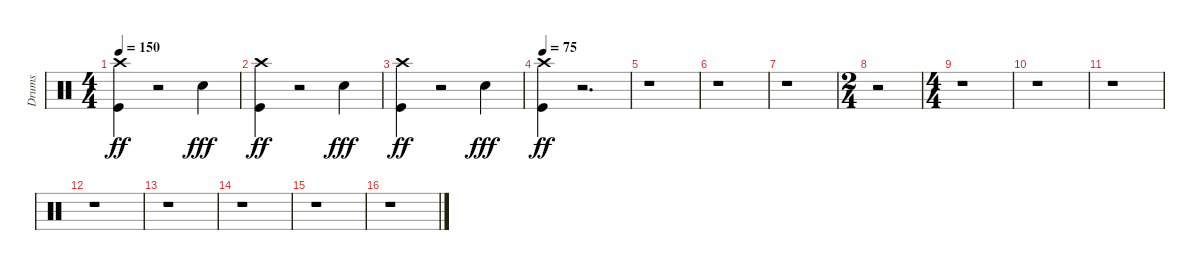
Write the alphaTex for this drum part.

\track ("Drums" "Drums") {instrument percussion}
\staff {score}
\articulation defaults
\ts (4 4)
\tempo 150
\clef neutral
\ks c
("Crash high (hit)" "Kick (hit)").4{dy ff} r.2 "Snare (hit) 2".4{dy fff} |
("Crash high (hit)" "Kick (hit)").4{dy ff} r.2 "Snare (hit) 2".4{dy fff} |
("Crash high (hit)" "Kick (hit)").4{dy ff} r.2 "Snare (hit) 2".4{dy fff} |
\tempo 75
("Kick (hit)" "Crash high (hit)").4{dy ff} r.2{d} |
r.1 |
r.1 |
r.1 |
\ts (2 4)
r.2 |
\ts (4 4)
r.1 |
r.1 |
r.1 |
r.1 |
r.1 |
r.1 |
r.1 |
r.1
